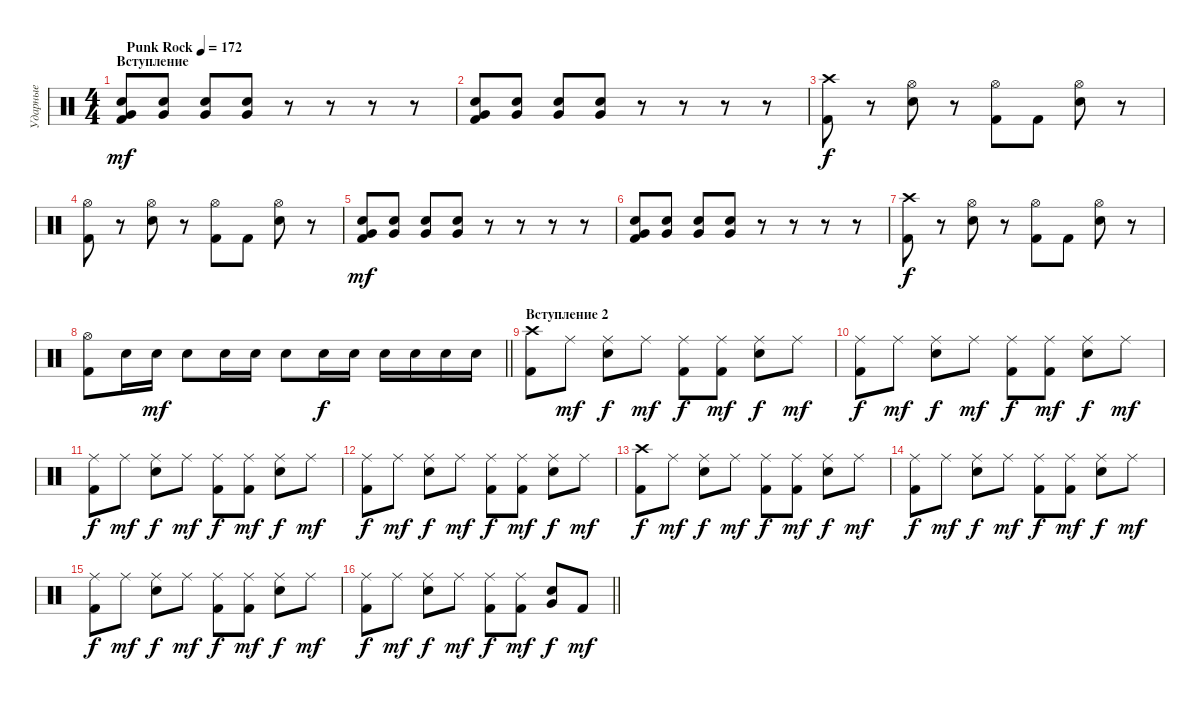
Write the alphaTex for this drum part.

\track ("Ударные" "Ударные") {instrument percussion}
\staff {score}
\articulation defaults
\ts (4 4)
\section ("" "Вступление")
\tempo (172 "Punk Rock")
\clef neutral
\ks c
("Snare (hit) 2" "Very Low Tom (hit)" "Kick (hit) 2").8{dy mf} ("Snare (hit) 2" "Very Low Tom (hit)").8 ("Snare (hit) 2" "Very Low Tom (hit)").8 ("Snare (hit) 2" "Very Low Tom (hit)").8 r.8 r.8 r.8 r.8 |
("Snare (hit) 2" "Very Low Tom (hit)" "Kick (hit) 2").8 ("Snare (hit) 2" "Very Low Tom (hit)").8 ("Snare (hit) 2" "Very Low Tom (hit)").8 ("Snare (hit) 2" "Very Low Tom (hit)").8 r.8 r.8 r.8 r.8 |
("Crash high (hit)" "Kick (hit) 2").8{dy f} r.8 ("Hi-Hat (open)" "Snare (hit) 2").8 r.8 ("Hi-Hat (open)" "Kick (hit) 2").8 "Kick (hit) 2".8 ("Hi-Hat (open)" "Snare (hit) 2").8 r.8 |
("Hi-Hat (open)" "Kick (hit) 2").8 r.8 ("Hi-Hat (open)" "Snare (hit) 2").8 r.8 ("Hi-Hat (open)" "Kick (hit) 2").8 "Kick (hit) 2".8 ("Hi-Hat (open)" "Snare (hit) 2").8 r.8 |
("Snare (hit) 2" "Very Low Tom (hit)" "Kick (hit) 2").8{dy mf} ("Snare (hit) 2" "Very Low Tom (hit)").8 ("Snare (hit) 2" "Very Low Tom (hit)").8 ("Snare (hit) 2" "Very Low Tom (hit)").8 r.8 r.8 r.8 r.8 |
("Snare (hit) 2" "Very Low Tom (hit)" "Kick (hit) 2").8 ("Snare (hit) 2" "Very Low Tom (hit)").8 ("Snare (hit) 2" "Very Low Tom (hit)").8 ("Snare (hit) 2" "Very Low Tom (hit)").8 r.8 r.8 r.8 r.8 |
("Crash high (hit)" "Kick (hit) 2").8{dy f} r.8 ("Hi-Hat (open)" "Snare (hit) 2").8 r.8 ("Hi-Hat (open)" "Kick (hit) 2").8 "Kick (hit) 2".8 ("Hi-Hat (open)" "Snare (hit) 2").8 r.8 |
\barLineRight lightlight
("Hi-Hat (open)" "Kick (hit) 2").8 "Snare (hit) 2".16 "Snare (hit) 2".16{dy mf} "Snare (hit) 2".8 "Snare (hit) 2".16 "Snare (hit) 2".16 "Snare (hit) 2".8 "Snare (hit) 2".16{dy f} "Snare (hit) 2".16 "Snare (hit) 2".16 "Snare (hit) 2".16 "Snare (hit) 2".16 "Snare (hit) 2".16 |
\section ("" "Вступление 2")
("Crash high (hit)" "Kick (hit) 2").8 "Ride (middle)".8{dy mf} ("Ride (middle)" "Snare (hit) 2").8{dy f} "Ride (middle)".8{dy mf} ("Ride (middle)" "Kick (hit) 2").8{dy f} ("Ride (middle)" "Kick (hit) 2").8{dy mf} ("Ride (middle)" "Snare (hit) 2").8{dy f} "Ride (middle)".8{dy mf} |
("Ride (middle)" "Kick (hit) 2").8{dy f} "Ride (middle)".8{dy mf} ("Ride (middle)" "Snare (hit) 2").8{dy f} "Ride (middle)".8{dy mf} ("Ride (middle)" "Kick (hit) 2").8{dy f} ("Ride (middle)" "Kick (hit) 2").8{dy mf} ("Ride (middle)" "Snare (hit) 2").8{dy f} "Ride (middle)".8{dy mf} |
("Ride (middle)" "Kick (hit) 2").8{dy f} "Ride (middle)".8{dy mf} ("Ride (middle)" "Snare (hit) 2").8{dy f} "Ride (middle)".8{dy mf} ("Ride (middle)" "Kick (hit) 2").8{dy f} ("Ride (middle)" "Kick (hit) 2").8{dy mf} ("Ride (middle)" "Snare (hit) 2").8{dy f} "Ride (middle)".8{dy mf} |
("Ride (middle)" "Kick (hit) 2").8{dy f} "Ride (middle)".8{dy mf} ("Ride (middle)" "Snare (hit) 2").8{dy f} "Ride (middle)".8{dy mf} ("Ride (middle)" "Kick (hit) 2").8{dy f} ("Ride (middle)" "Kick (hit) 2").8{dy mf} ("Ride (middle)" "Snare (hit) 2").8{dy f} "Ride (middle)".8{dy mf} |
("Crash high (hit)" "Kick (hit) 2").8{dy f} "Ride (middle)".8{dy mf} ("Ride (middle)" "Snare (hit) 2").8{dy f} "Ride (middle)".8{dy mf} ("Ride (middle)" "Kick (hit) 2").8{dy f} ("Ride (middle)" "Kick (hit) 2").8{dy mf} ("Ride (middle)" "Snare (hit) 2").8{dy f} "Ride (middle)".8{dy mf} |
("Ride (middle)" "Kick (hit) 2").8{dy f} "Ride (middle)".8{dy mf} ("Ride (middle)" "Snare (hit) 2").8{dy f} "Ride (middle)".8{dy mf} ("Ride (middle)" "Kick (hit) 2").8{dy f} ("Ride (middle)" "Kick (hit) 2").8{dy mf} ("Ride (middle)" "Snare (hit) 2").8{dy f} "Ride (middle)".8{dy mf} |
("Ride (middle)" "Kick (hit) 2").8{dy f} "Ride (middle)".8{dy mf} ("Ride (middle)" "Snare (hit) 2").8{dy f} "Ride (middle)".8{dy mf} ("Ride (middle)" "Kick (hit) 2").8{dy f} ("Ride (middle)" "Kick (hit) 2").8{dy mf} ("Ride (middle)" "Snare (hit) 2").8{dy f} "Ride (middle)".8{dy mf} |
\barLineRight lightlight
("Ride (middle)" "Kick (hit) 2").8{dy f} "Ride (middle)".8{dy mf} ("Ride (middle)" "Snare (hit) 2").8{dy f} "Ride (middle)".8{dy mf} ("Ride (middle)" "Kick (hit) 2").8{dy f} ("Ride (middle)" "Kick (hit) 2").8{dy mf} ("Very Low Tom (hit)" "Snare (hit) 2").8{dy f} "Kick (hit) 2".8{dy mf}
